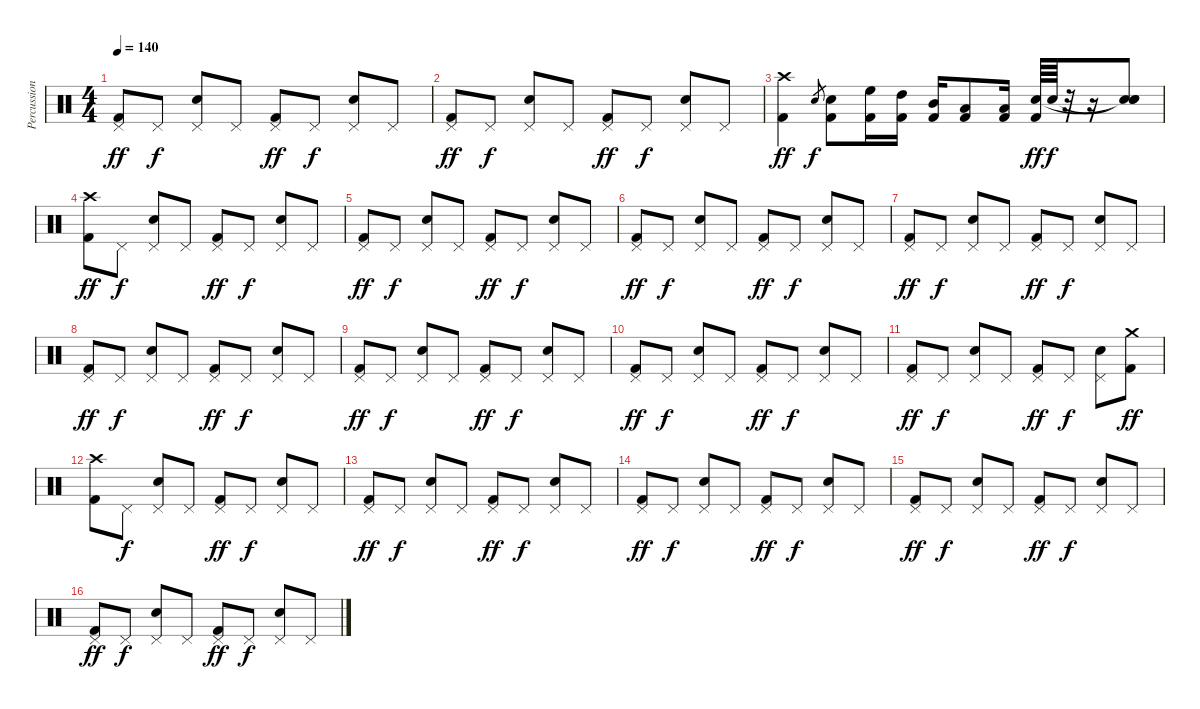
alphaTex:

\track ("Percussion" "Percussion") {instrument percussion}
\staff {score}
\articulation defaults
\ts (4 4)
\tempo 140
\clef neutral
\ks c
("Pedal Hi-Hat (hit)" "Kick (hit) 2").8{dy ff} "Pedal Hi-Hat (hit)".8{dy f} ("Pedal Hi-Hat (hit)" "Snare (hit) 2").8 "Pedal Hi-Hat (hit)".8 ("Pedal Hi-Hat (hit)" "Kick (hit) 2").8{dy ff} "Pedal Hi-Hat (hit)".8{dy f} ("Pedal Hi-Hat (hit)" "Snare (hit) 2").8 "Pedal Hi-Hat (hit)".8 |
("Pedal Hi-Hat (hit)" "Kick (hit) 2").8{dy ff} "Pedal Hi-Hat (hit)".8{dy f} ("Pedal Hi-Hat (hit)" "Snare (hit) 2").8 "Pedal Hi-Hat (hit)".8 ("Pedal Hi-Hat (hit)" "Kick (hit) 2").8{dy ff} "Pedal Hi-Hat (hit)".8{dy f} ("Pedal Hi-Hat (hit)" "Snare (hit) 2").8 "Pedal Hi-Hat (hit)".8 |
("Crash high (hit)" "Kick (hit) 2").4{dy ff} "Snare (hit) 2".8{gr dy f} ("Snare (hit) 2" "Kick (hit) 2").8 ("High Floor Tom (hit)" "Kick (hit) 2").16 ("High Tom (hit)" "Kick (hit) 2").16 ("Mid Tom (hit)" "Kick (hit) 2").16 ("Low Tom (hit)" "Kick (hit) 2").8 ("Low Tom (hit)" "Kick (hit) 2").16 ("Kick (hit) 2" "Snare (hit) 2").64{dy ff} "Snare (hit) 2".64{dy f} r.32 r.16 ("Snare (hit)"{t} "Snare (hit)"{t} "Snare (hit)").8 |
("Crash high (hit)" "Kick (hit) 2").8{dy ff} "Pedal Hi-Hat (hit)".8{dy f} ("Pedal Hi-Hat (hit)" "Snare (hit) 2").8 "Pedal Hi-Hat (hit)".8 ("Pedal Hi-Hat (hit)" "Kick (hit) 2").8{dy ff} "Pedal Hi-Hat (hit)".8{dy f} ("Pedal Hi-Hat (hit)" "Snare (hit) 2").8 "Pedal Hi-Hat (hit)".8 |
("Pedal Hi-Hat (hit)" "Kick (hit) 2").8{dy ff} "Pedal Hi-Hat (hit)".8{dy f} ("Pedal Hi-Hat (hit)" "Snare (hit) 2").8 "Pedal Hi-Hat (hit)".8 ("Pedal Hi-Hat (hit)" "Kick (hit) 2").8{dy ff} "Pedal Hi-Hat (hit)".8{dy f} ("Pedal Hi-Hat (hit)" "Snare (hit) 2").8 "Pedal Hi-Hat (hit)".8 |
("Pedal Hi-Hat (hit)" "Kick (hit) 2").8{dy ff} "Pedal Hi-Hat (hit)".8{dy f} ("Pedal Hi-Hat (hit)" "Snare (hit) 2").8 "Pedal Hi-Hat (hit)".8 ("Pedal Hi-Hat (hit)" "Kick (hit) 2").8{dy ff} "Pedal Hi-Hat (hit)".8{dy f} ("Pedal Hi-Hat (hit)" "Snare (hit) 2").8 "Pedal Hi-Hat (hit)".8 |
("Pedal Hi-Hat (hit)" "Kick (hit) 2").8{dy ff} "Pedal Hi-Hat (hit)".8{dy f} ("Pedal Hi-Hat (hit)" "Snare (hit) 2").8 "Pedal Hi-Hat (hit)".8 ("Pedal Hi-Hat (hit)" "Kick (hit) 2").8{dy ff} "Pedal Hi-Hat (hit)".8{dy f} ("Pedal Hi-Hat (hit)" "Snare (hit) 2").8 "Pedal Hi-Hat (hit)".8 |
("Pedal Hi-Hat (hit)" "Kick (hit) 2").8{dy ff} "Pedal Hi-Hat (hit)".8{dy f} ("Pedal Hi-Hat (hit)" "Snare (hit) 2").8 "Pedal Hi-Hat (hit)".8 ("Pedal Hi-Hat (hit)" "Kick (hit) 2").8{dy ff} "Pedal Hi-Hat (hit)".8{dy f} ("Pedal Hi-Hat (hit)" "Snare (hit) 2").8 "Pedal Hi-Hat (hit)".8 |
("Pedal Hi-Hat (hit)" "Kick (hit) 2").8{dy ff} "Pedal Hi-Hat (hit)".8{dy f} ("Pedal Hi-Hat (hit)" "Snare (hit) 2").8 "Pedal Hi-Hat (hit)".8 ("Pedal Hi-Hat (hit)" "Kick (hit) 2").8{dy ff} "Pedal Hi-Hat (hit)".8{dy f} ("Pedal Hi-Hat (hit)" "Snare (hit) 2").8 "Pedal Hi-Hat (hit)".8 |
("Pedal Hi-Hat (hit)" "Kick (hit) 2").8{dy ff} "Pedal Hi-Hat (hit)".8{dy f} ("Pedal Hi-Hat (hit)" "Snare (hit) 2").8 "Pedal Hi-Hat (hit)".8 ("Pedal Hi-Hat (hit)" "Kick (hit) 2").8{dy ff} "Pedal Hi-Hat (hit)".8{dy f} ("Pedal Hi-Hat (hit)" "Snare (hit) 2").8 "Pedal Hi-Hat (hit)".8 |
("Pedal Hi-Hat (hit)" "Kick (hit) 2").8{dy ff} "Pedal Hi-Hat (hit)".8{dy f} ("Pedal Hi-Hat (hit)" "Snare (hit) 2").8 "Pedal Hi-Hat (hit)".8 ("Pedal Hi-Hat (hit)" "Kick (hit) 2").8{dy ff} "Pedal Hi-Hat (hit)".8{dy f} ("Pedal Hi-Hat (hit)" "Snare (hit) 2").8 ("Crash medium (hit)" "Kick (hit) 2").8{dy ff} |
("Crash high (hit)" "Kick (hit) 2").8 "Pedal Hi-Hat (hit)".8{dy f} ("Pedal Hi-Hat (hit)" "Snare (hit) 2").8 "Pedal Hi-Hat (hit)".8 ("Pedal Hi-Hat (hit)" "Kick (hit) 2").8{dy ff} "Pedal Hi-Hat (hit)".8{dy f} ("Pedal Hi-Hat (hit)" "Snare (hit) 2").8 "Pedal Hi-Hat (hit)".8 |
("Pedal Hi-Hat (hit)" "Kick (hit) 2").8{dy ff} "Pedal Hi-Hat (hit)".8{dy f} ("Pedal Hi-Hat (hit)" "Snare (hit) 2").8 "Pedal Hi-Hat (hit)".8 ("Pedal Hi-Hat (hit)" "Kick (hit) 2").8{dy ff} "Pedal Hi-Hat (hit)".8{dy f} ("Pedal Hi-Hat (hit)" "Snare (hit) 2").8 "Pedal Hi-Hat (hit)".8 |
("Pedal Hi-Hat (hit)" "Kick (hit) 2").8{dy ff} "Pedal Hi-Hat (hit)".8{dy f} ("Pedal Hi-Hat (hit)" "Snare (hit) 2").8 "Pedal Hi-Hat (hit)".8 ("Pedal Hi-Hat (hit)" "Kick (hit) 2").8{dy ff} "Pedal Hi-Hat (hit)".8{dy f} ("Pedal Hi-Hat (hit)" "Snare (hit) 2").8 "Pedal Hi-Hat (hit)".8 |
("Pedal Hi-Hat (hit)" "Kick (hit) 2").8{dy ff} "Pedal Hi-Hat (hit)".8{dy f} ("Pedal Hi-Hat (hit)" "Snare (hit) 2").8 "Pedal Hi-Hat (hit)".8 ("Pedal Hi-Hat (hit)" "Kick (hit) 2").8{dy ff} "Pedal Hi-Hat (hit)".8{dy f} ("Pedal Hi-Hat (hit)" "Snare (hit) 2").8 "Pedal Hi-Hat (hit)".8 |
("Pedal Hi-Hat (hit)" "Kick (hit) 2").8{dy ff} "Pedal Hi-Hat (hit)".8{dy f} ("Pedal Hi-Hat (hit)" "Snare (hit) 2").8 "Pedal Hi-Hat (hit)".8 ("Pedal Hi-Hat (hit)" "Kick (hit) 2").8{dy ff} "Pedal Hi-Hat (hit)".8{dy f} ("Pedal Hi-Hat (hit)" "Snare (hit) 2").8 "Pedal Hi-Hat (hit)".8
